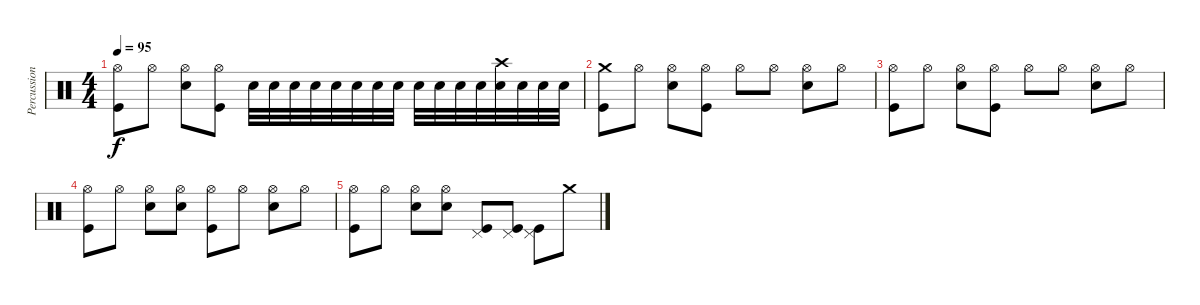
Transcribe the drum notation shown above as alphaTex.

\track ("Percussion" "Percussion") {instrument percussion}
\staff {score}
\articulation defaults
\ts (4 4)
\tempo 95
\clef neutral
\ks c
("Hi-Hat (open)" "Kick (hit)").8{dy f} "Hi-Hat (open)".8 ("Hi-Hat (open)" "Electric Snare (hit)").8 ("Hi-Hat (open)" "Kick (hit)").8 "Electric Snare (hit)".32 "Hand Clap (hit)".32 "Hand Clap (hit)".32 "Hand Clap (hit)".32 "Electric Snare (hit)".32 "Hand Clap (hit)".32 "Hand Clap (hit)".32 "Hand Clap (hit)".32 "Electric Snare (hit)".32 "Hand Clap (hit)".32 "Hand Clap (hit)".32 "Hand Clap (hit)".32 ("Electric Snare (hit)" "Crash high (hit)").32 "Hand Clap (hit)".32 "Hand Clap (hit)".32 "Hand Clap (hit)".32 |
("Crash medium (hit)" "Kick (hit)").8 "Hi-Hat (open)".8 ("Hi-Hat (open)" "Electric Snare (hit)").8 ("Hi-Hat (open)" "Kick (hit)").8 "Hi-Hat (open)".8 "Hi-Hat (open)".8 ("Hi-Hat (open)" "Electric Snare (hit)").8 "Hi-Hat (open)".8 |
("Hi-Hat (open)" "Kick (hit)").8 "Hi-Hat (open)".8 ("Hi-Hat (open)" "Electric Snare (hit)").8 ("Hi-Hat (open)" "Kick (hit)").8 "Hi-Hat (open)".8 "Hi-Hat (open)".8 ("Hi-Hat (open)" "Electric Snare (hit)").8 "Hi-Hat (open)".8 |
("Hi-Hat (open)" "Kick (hit)").8 "Hi-Hat (open)".8 ("Hi-Hat (open)" "Electric Snare (hit)").8 ("Hi-Hat (open)" "Electric Snare (hit)").8 ("Hi-Hat (open)" "Kick (hit)").8 "Hi-Hat (open)".8 ("Hi-Hat (open)" "Electric Snare (hit)").8 "Hi-Hat (open)".8 |
("Hi-Hat (open)" "Kick (hit)").8 "Hi-Hat (open)".8 ("Hi-Hat (open)" "Electric Snare (hit)").8 ("Hi-Hat (open)" "Electric Snare (hit)").8 ("Pedal Hi-Hat (hit)" "Kick (hit)").8 ("Pedal Hi-Hat (hit)" "Kick (hit)").8 ("Pedal Hi-Hat (hit)" "Kick (hit)").8 "Crash medium (hit)".8
